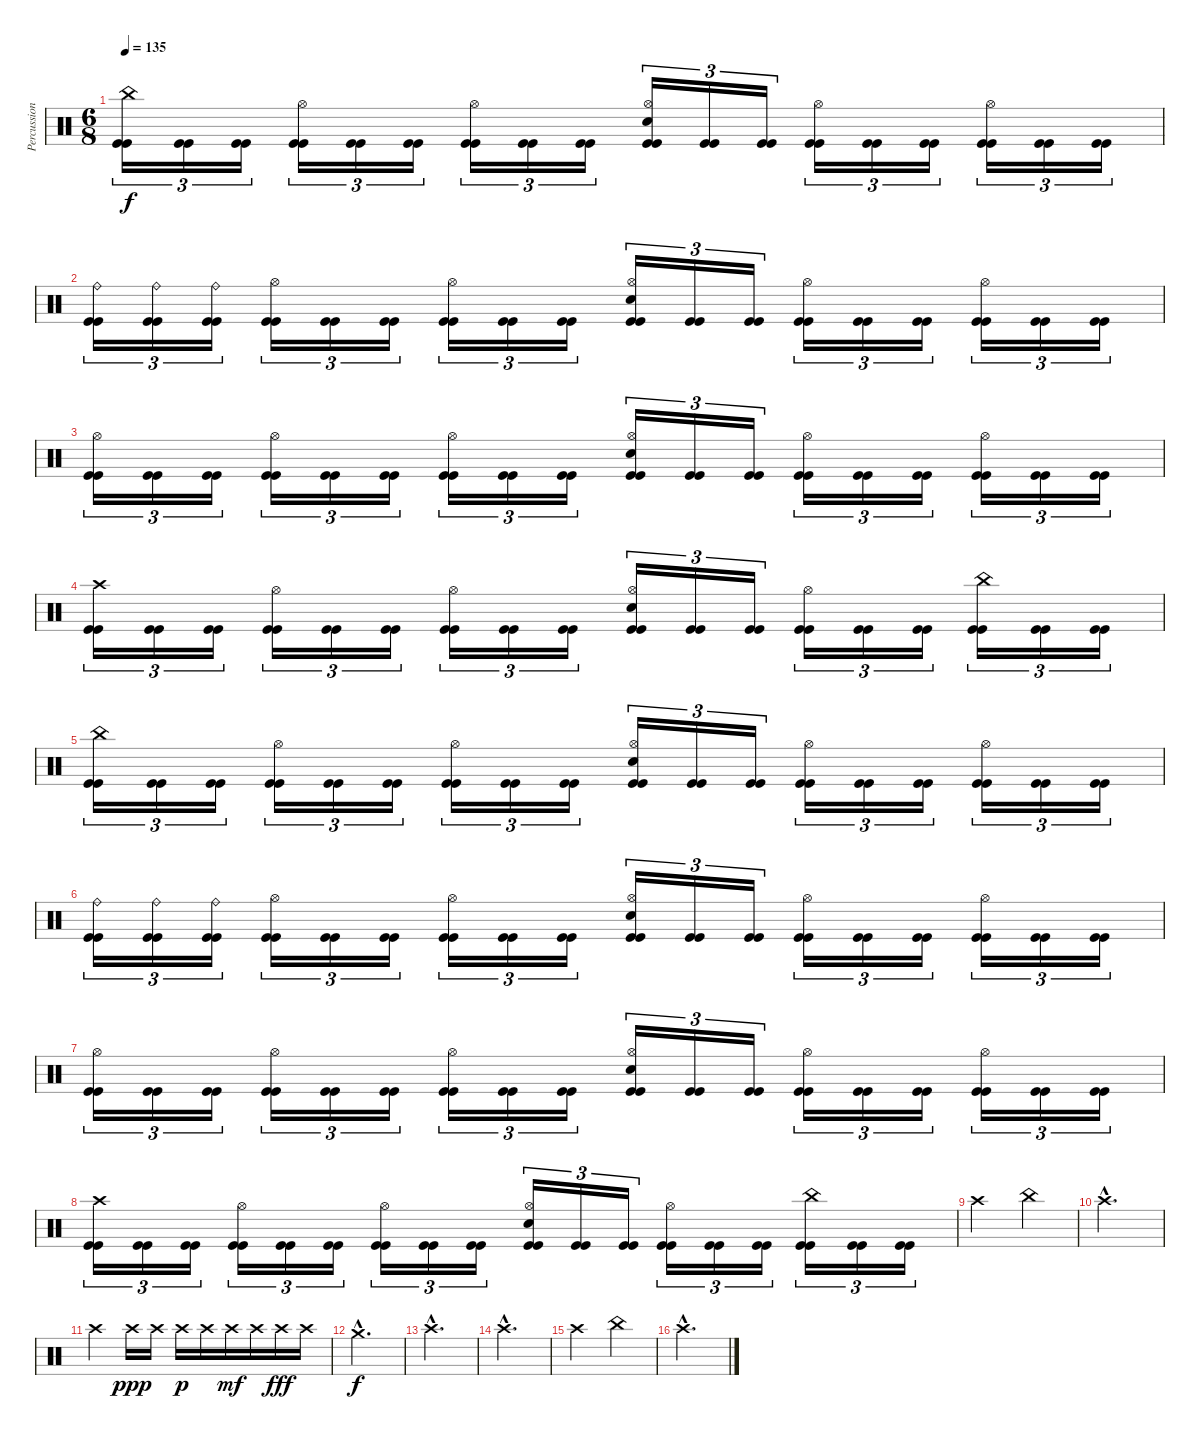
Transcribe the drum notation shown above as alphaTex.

\track ("Percussion" "Percussion") {instrument percussion}
\staff {score}
\articulation defaults
\ts (6 8)
\tempo 135
\clef neutral
\ks c
("China (hit)" "Kick (hit)" "Kick (hit)").16{tu (3 2) dy f} ("Kick (hit)" "Kick (hit)").16{tu (3 2)} ("Kick (hit)" "Kick (hit)").16{tu (3 2)} ("Hi-Hat (open)" "Kick (hit)" "Kick (hit)").16{tu (3 2)} ("Kick (hit)" "Kick (hit)").16{tu (3 2)} ("Kick (hit)" "Kick (hit)").16{tu (3 2)} ("Hi-Hat (open)" "Kick (hit)" "Kick (hit)").16{tu (3 2)} ("Kick (hit)" "Kick (hit)").16{tu (3 2)} ("Kick (hit)" "Kick (hit)").16{tu (3 2)} ("Hi-Hat (open)" "Snare (hit) 2" "Kick (hit)" "Kick (hit)").16{tu (3 2)} ("Kick (hit)" "Kick (hit)").16{tu (3 2)} ("Kick (hit)" "Kick (hit)").16{tu (3 2)} ("Hi-Hat (open)" "Kick (hit)" "Kick (hit)").16{tu (3 2)} ("Kick (hit)" "Kick (hit)").16{tu (3 2)} ("Kick (hit)" "Kick (hit)").16{tu (3 2)} ("Hi-Hat (open)" "Kick (hit)" "Kick (hit)").16{tu (3 2)} ("Kick (hit)" "Kick (hit)").16{tu (3 2)} ("Kick (hit)" "Kick (hit)").16{tu (3 2)} |
("Ride (bell)" "Kick (hit)" "Kick (hit)").16{tu (3 2)} ("Ride (bell)" "Kick (hit)" "Kick (hit)").16{tu (3 2)} ("Ride (bell)" "Kick (hit)" "Kick (hit)").16{tu (3 2)} ("Hi-Hat (open)" "Kick (hit)" "Kick (hit)").16{tu (3 2)} ("Kick (hit)" "Kick (hit)").16{tu (3 2)} ("Kick (hit)" "Kick (hit)").16{tu (3 2)} ("Hi-Hat (open)" "Kick (hit)" "Kick (hit)").16{tu (3 2)} ("Kick (hit)" "Kick (hit)").16{tu (3 2)} ("Kick (hit)" "Kick (hit)").16{tu (3 2)} ("Hi-Hat (open)" "Snare (hit) 2" "Kick (hit)" "Kick (hit)").16{tu (3 2)} ("Kick (hit)" "Kick (hit)").16{tu (3 2)} ("Kick (hit)" "Kick (hit)").16{tu (3 2)} ("Hi-Hat (open)" "Kick (hit)" "Kick (hit)").16{tu (3 2)} ("Kick (hit)" "Kick (hit)").16{tu (3 2)} ("Kick (hit)" "Kick (hit)").16{tu (3 2)} ("Hi-Hat (open)" "Kick (hit)" "Kick (hit)").16{tu (3 2)} ("Kick (hit)" "Kick (hit)").16{tu (3 2)} ("Kick (hit)" "Kick (hit)").16{tu (3 2)} |
("Hi-Hat (open)" "Kick (hit)" "Kick (hit)").16{tu (3 2)} ("Kick (hit)" "Kick (hit)").16{tu (3 2)} ("Kick (hit)" "Kick (hit)").16{tu (3 2)} ("Hi-Hat (open)" "Kick (hit)" "Kick (hit)").16{tu (3 2)} ("Kick (hit)" "Kick (hit)").16{tu (3 2)} ("Kick (hit)" "Kick (hit)").16{tu (3 2)} ("Hi-Hat (open)" "Kick (hit)" "Kick (hit)").16{tu (3 2)} ("Kick (hit)" "Kick (hit)").16{tu (3 2)} ("Kick (hit)" "Kick (hit)").16{tu (3 2)} ("Hi-Hat (open)" "Snare (hit) 2" "Kick (hit)" "Kick (hit)").16{tu (3 2)} ("Kick (hit)" "Kick (hit)").16{tu (3 2)} ("Kick (hit)" "Kick (hit)").16{tu (3 2)} ("Hi-Hat (open)" "Kick (hit)" "Kick (hit)").16{tu (3 2)} ("Kick (hit)" "Kick (hit)").16{tu (3 2)} ("Kick (hit)" "Kick (hit)").16{tu (3 2)} ("Hi-Hat (open)" "Kick (hit)" "Kick (hit)").16{tu (3 2)} ("Kick (hit)" "Kick (hit)").16{tu (3 2)} ("Kick (hit)" "Kick (hit)").16{tu (3 2)} |
("Crash high (hit)" "Kick (hit)" "Kick (hit)").16{tu (3 2)} ("Kick (hit)" "Kick (hit)").16{tu (3 2)} ("Kick (hit)" "Kick (hit)").16{tu (3 2)} ("Hi-Hat (open)" "Kick (hit)" "Kick (hit)").16{tu (3 2)} ("Kick (hit)" "Kick (hit)").16{tu (3 2)} ("Kick (hit)" "Kick (hit)").16{tu (3 2)} ("Hi-Hat (open)" "Kick (hit)" "Kick (hit)").16{tu (3 2)} ("Kick (hit)" "Kick (hit)").16{tu (3 2)} ("Kick (hit)" "Kick (hit)").16{tu (3 2)} ("Hi-Hat (open)" "Snare (hit) 2" "Kick (hit)" "Kick (hit)").16{tu (3 2)} ("Kick (hit)" "Kick (hit)").16{tu (3 2)} ("Kick (hit)" "Kick (hit)").16{tu (3 2)} ("Hi-Hat (open)" "Kick (hit)" "Kick (hit)").16{tu (3 2)} ("Kick (hit)" "Kick (hit)").16{tu (3 2)} ("Kick (hit)" "Kick (hit)").16{tu (3 2)} ("China (hit)" "Kick (hit)" "Kick (hit)").16{tu (3 2)} ("Kick (hit)" "Kick (hit)").16{tu (3 2)} ("Kick (hit)" "Kick (hit)").16{tu (3 2)} |
("China (hit)" "Kick (hit)" "Kick (hit)").16{tu (3 2)} ("Kick (hit)" "Kick (hit)").16{tu (3 2)} ("Kick (hit)" "Kick (hit)").16{tu (3 2)} ("Hi-Hat (open)" "Kick (hit)" "Kick (hit)").16{tu (3 2)} ("Kick (hit)" "Kick (hit)").16{tu (3 2)} ("Kick (hit)" "Kick (hit)").16{tu (3 2)} ("Hi-Hat (open)" "Kick (hit)" "Kick (hit)").16{tu (3 2)} ("Kick (hit)" "Kick (hit)").16{tu (3 2)} ("Kick (hit)" "Kick (hit)").16{tu (3 2)} ("Hi-Hat (open)" "Snare (hit) 2" "Kick (hit)" "Kick (hit)").16{tu (3 2)} ("Kick (hit)" "Kick (hit)").16{tu (3 2)} ("Kick (hit)" "Kick (hit)").16{tu (3 2)} ("Hi-Hat (open)" "Kick (hit)" "Kick (hit)").16{tu (3 2)} ("Kick (hit)" "Kick (hit)").16{tu (3 2)} ("Kick (hit)" "Kick (hit)").16{tu (3 2)} ("Hi-Hat (open)" "Kick (hit)" "Kick (hit)").16{tu (3 2)} ("Kick (hit)" "Kick (hit)").16{tu (3 2)} ("Kick (hit)" "Kick (hit)").16{tu (3 2)} |
("Ride (bell)" "Kick (hit)" "Kick (hit)").16{tu (3 2)} ("Ride (bell)" "Kick (hit)" "Kick (hit)").16{tu (3 2)} ("Ride (bell)" "Kick (hit)" "Kick (hit)").16{tu (3 2)} ("Hi-Hat (open)" "Kick (hit)" "Kick (hit)").16{tu (3 2)} ("Kick (hit)" "Kick (hit)").16{tu (3 2)} ("Kick (hit)" "Kick (hit)").16{tu (3 2)} ("Hi-Hat (open)" "Kick (hit)" "Kick (hit)").16{tu (3 2)} ("Kick (hit)" "Kick (hit)").16{tu (3 2)} ("Kick (hit)" "Kick (hit)").16{tu (3 2)} ("Hi-Hat (open)" "Snare (hit) 2" "Kick (hit)" "Kick (hit)").16{tu (3 2)} ("Kick (hit)" "Kick (hit)").16{tu (3 2)} ("Kick (hit)" "Kick (hit)").16{tu (3 2)} ("Hi-Hat (open)" "Kick (hit)" "Kick (hit)").16{tu (3 2)} ("Kick (hit)" "Kick (hit)").16{tu (3 2)} ("Kick (hit)" "Kick (hit)").16{tu (3 2)} ("Hi-Hat (open)" "Kick (hit)" "Kick (hit)").16{tu (3 2)} ("Kick (hit)" "Kick (hit)").16{tu (3 2)} ("Kick (hit)" "Kick (hit)").16{tu (3 2)} |
("Hi-Hat (open)" "Kick (hit)" "Kick (hit)").16{tu (3 2)} ("Kick (hit)" "Kick (hit)").16{tu (3 2)} ("Kick (hit)" "Kick (hit)").16{tu (3 2)} ("Hi-Hat (open)" "Kick (hit)" "Kick (hit)").16{tu (3 2)} ("Kick (hit)" "Kick (hit)").16{tu (3 2)} ("Kick (hit)" "Kick (hit)").16{tu (3 2)} ("Hi-Hat (open)" "Kick (hit)" "Kick (hit)").16{tu (3 2)} ("Kick (hit)" "Kick (hit)").16{tu (3 2)} ("Kick (hit)" "Kick (hit)").16{tu (3 2)} ("Hi-Hat (open)" "Snare (hit) 2" "Kick (hit)" "Kick (hit)").16{tu (3 2)} ("Kick (hit)" "Kick (hit)").16{tu (3 2)} ("Kick (hit)" "Kick (hit)").16{tu (3 2)} ("Hi-Hat (open)" "Kick (hit)" "Kick (hit)").16{tu (3 2)} ("Kick (hit)" "Kick (hit)").16{tu (3 2)} ("Kick (hit)" "Kick (hit)").16{tu (3 2)} ("Hi-Hat (open)" "Kick (hit)" "Kick (hit)").16{tu (3 2)} ("Kick (hit)" "Kick (hit)").16{tu (3 2)} ("Kick (hit)" "Kick (hit)").16{tu (3 2)} |
("Crash high (hit)" "Kick (hit)" "Kick (hit)").16{tu (3 2)} ("Kick (hit)" "Kick (hit)").16{tu (3 2)} ("Kick (hit)" "Kick (hit)").16{tu (3 2)} ("Hi-Hat (open)" "Kick (hit)" "Kick (hit)").16{tu (3 2)} ("Kick (hit)" "Kick (hit)").16{tu (3 2)} ("Kick (hit)" "Kick (hit)").16{tu (3 2)} ("Hi-Hat (open)" "Kick (hit)" "Kick (hit)").16{tu (3 2)} ("Kick (hit)" "Kick (hit)").16{tu (3 2)} ("Kick (hit)" "Kick (hit)").16{tu (3 2)} ("Hi-Hat (open)" "Snare (hit) 2" "Kick (hit)" "Kick (hit)").16{tu (3 2)} ("Kick (hit)" "Kick (hit)").16{tu (3 2)} ("Kick (hit)" "Kick (hit)").16{tu (3 2)} ("Hi-Hat (open)" "Kick (hit)" "Kick (hit)").16{tu (3 2)} ("Kick (hit)" "Kick (hit)").16{tu (3 2)} ("Kick (hit)" "Kick (hit)").16{tu (3 2)} ("China (hit)" "Kick (hit)" "Kick (hit)").16{tu (3 2)} ("Kick (hit)" "Kick (hit)").16{tu (3 2)} ("Kick (hit)" "Kick (hit)").16{tu (3 2)} |
"Crash high (hit)".2 "China (hit)".4 |
"Crash high (hit)"{hac}.2{d} |
"Crash high (hit)".4 "Crash high (hit)".16{dy ppp} "Crash high (hit)".16 "Crash high (hit)".16{dy p} "Crash high (hit)".16 "Crash high (hit)".16{dy mf} "Crash high (hit)".16 "Crash high (hit)".16{dy fff} "Crash high (hit)".16 |
"Crash medium (hit)"{hac}.2{d dy f} |
"Crash high (hit)"{hac}.2{d} |
"Crash high (hit)"{hac}.2{d} |
"Crash high (hit)".2 "China (hit)".4 |
"Crash high (hit)"{hac}.2{d}
